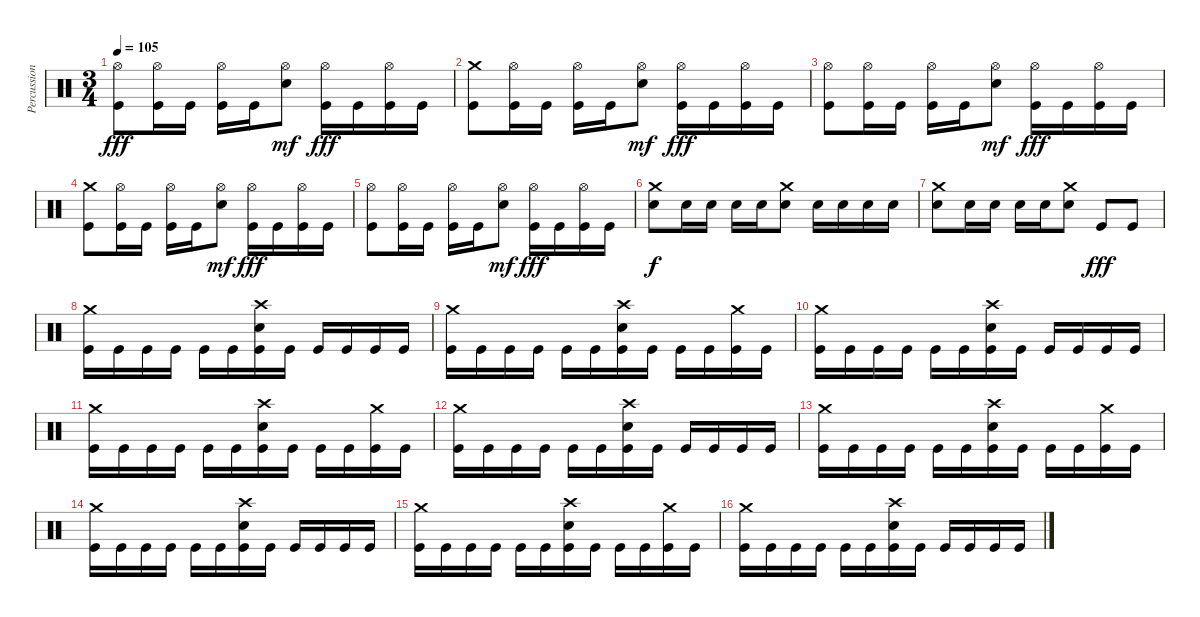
\track ("Percussions" "Percussion") {instrument percussion}
\staff {score}
\articulation defaults
\ts (3 4)
\tempo 105
\clef neutral
\ks c
("Hi-Hat (open)" "Kick (hit)").8{dy fff} ("Hi-Hat (open)" "Kick (hit)").16 "Kick (hit)".16 ("Hi-Hat (open)" "Kick (hit)").16 "Kick (hit)".16 ("Hi-Hat (open)" "Snare (hit) 2").8{dy mf} ("Hi-Hat (open)" "Kick (hit)").16{dy fff} "Kick (hit)".16 ("Hi-Hat (open)" "Kick (hit)").16 "Kick (hit)".16 |
("Crash medium (hit)" "Kick (hit)").8 ("Hi-Hat (open)" "Kick (hit)").16 "Kick (hit)".16 ("Hi-Hat (open)" "Kick (hit)").16 "Kick (hit)".16 ("Hi-Hat (open)" "Snare (hit) 2").8{dy mf} ("Hi-Hat (open)" "Kick (hit)").16{dy fff} "Kick (hit)".16 ("Hi-Hat (open)" "Kick (hit)").16 "Kick (hit)".16 |
("Hi-Hat (open)" "Kick (hit)").8 ("Hi-Hat (open)" "Kick (hit)").16 "Kick (hit)".16 ("Hi-Hat (open)" "Kick (hit)").16 "Kick (hit)".16 ("Hi-Hat (open)" "Snare (hit) 2").8{dy mf} ("Hi-Hat (open)" "Kick (hit)").16{dy fff} "Kick (hit)".16 ("Hi-Hat (open)" "Kick (hit)").16 "Kick (hit)".16 |
("Crash medium (hit)" "Kick (hit)").8 ("Hi-Hat (open)" "Kick (hit)").16 "Kick (hit)".16 ("Hi-Hat (open)" "Kick (hit)").16 "Kick (hit)".16 ("Hi-Hat (open)" "Snare (hit) 2").8{dy mf} ("Hi-Hat (open)" "Kick (hit)").16{dy fff} "Kick (hit)".16 ("Hi-Hat (open)" "Kick (hit)").16 "Kick (hit)".16 |
("Hi-Hat (open)" "Kick (hit)").8 ("Hi-Hat (open)" "Kick (hit)").16 "Kick (hit)".16 ("Hi-Hat (open)" "Kick (hit)").16 "Kick (hit)".16 ("Hi-Hat (open)" "Snare (hit) 2").8{dy mf} ("Hi-Hat (open)" "Kick (hit)").16{dy fff} "Kick (hit)".16 ("Hi-Hat (open)" "Kick (hit)").16 "Kick (hit)".16 |
("Crash medium (hit)" "Snare (hit) 2").8{dy f} "Snare (hit) 2".16 "Snare (hit) 2".16 "Snare (hit) 2".16 "Snare (hit) 2".16 ("Crash medium (hit)" "Snare (hit) 2").8 "Snare (hit) 2".16 "Snare (hit) 2".16 "Snare (hit) 2".16 "Snare (hit) 2".16 |
("Crash medium (hit)" "Snare (hit) 2").8 "Snare (hit) 2".16 "Snare (hit) 2".16 "Snare (hit) 2".16 "Snare (hit) 2".16 ("Crash medium (hit)" "Snare (hit) 2").8 "Kick (hit)".8{dy fff} "Kick (hit)".8 |
("Crash medium (hit)" "Kick (hit)").16 "Kick (hit)".16 "Kick (hit)".16 "Kick (hit)".16 "Kick (hit)".16 "Kick (hit)".16 ("Crash high (hit)" "Snare (hit) 2" "Kick (hit)").16 "Kick (hit)".16 "Kick (hit)".16 "Kick (hit)".16 "Kick (hit)".16 "Kick (hit)".16 |
("Crash medium (hit)" "Kick (hit)").16 "Kick (hit)".16 "Kick (hit)".16 "Kick (hit)".16 "Kick (hit)".16 "Kick (hit)".16 ("Crash high (hit)" "Snare (hit) 2" "Kick (hit)").16 "Kick (hit)".16 "Kick (hit)".16 "Kick (hit)".16 ("Crash medium (hit)" "Kick (hit)").16 "Kick (hit)".16 |
("Crash medium (hit)" "Kick (hit)").16 "Kick (hit)".16 "Kick (hit)".16 "Kick (hit)".16 "Kick (hit)".16 "Kick (hit)".16 ("Crash high (hit)" "Snare (hit) 2" "Kick (hit)").16 "Kick (hit)".16 "Kick (hit)".16 "Kick (hit)".16 "Kick (hit)".16 "Kick (hit)".16 |
("Crash medium (hit)" "Kick (hit)").16 "Kick (hit)".16 "Kick (hit)".16 "Kick (hit)".16 "Kick (hit)".16 "Kick (hit)".16 ("Crash high (hit)" "Snare (hit) 2" "Kick (hit)").16 "Kick (hit)".16 "Kick (hit)".16 "Kick (hit)".16 ("Crash medium (hit)" "Kick (hit)").16 "Kick (hit)".16 |
("Crash medium (hit)" "Kick (hit)").16 "Kick (hit)".16 "Kick (hit)".16 "Kick (hit)".16 "Kick (hit)".16 "Kick (hit)".16 ("Crash high (hit)" "Snare (hit) 2" "Kick (hit)").16 "Kick (hit)".16 "Kick (hit)".16 "Kick (hit)".16 "Kick (hit)".16 "Kick (hit)".16 |
("Crash medium (hit)" "Kick (hit)").16 "Kick (hit)".16 "Kick (hit)".16 "Kick (hit)".16 "Kick (hit)".16 "Kick (hit)".16 ("Crash high (hit)" "Snare (hit) 2" "Kick (hit)").16 "Kick (hit)".16 "Kick (hit)".16 "Kick (hit)".16 ("Crash medium (hit)" "Kick (hit)").16 "Kick (hit)".16 |
("Crash medium (hit)" "Kick (hit)").16 "Kick (hit)".16 "Kick (hit)".16 "Kick (hit)".16 "Kick (hit)".16 "Kick (hit)".16 ("Crash high (hit)" "Snare (hit) 2" "Kick (hit)").16 "Kick (hit)".16 "Kick (hit)".16 "Kick (hit)".16 "Kick (hit)".16 "Kick (hit)".16 |
("Crash medium (hit)" "Kick (hit)").16 "Kick (hit)".16 "Kick (hit)".16 "Kick (hit)".16 "Kick (hit)".16 "Kick (hit)".16 ("Crash high (hit)" "Snare (hit) 2" "Kick (hit)").16 "Kick (hit)".16 "Kick (hit)".16 "Kick (hit)".16 ("Crash medium (hit)" "Kick (hit)").16 "Kick (hit)".16 |
("Crash medium (hit)" "Kick (hit)").16 "Kick (hit)".16 "Kick (hit)".16 "Kick (hit)".16 "Kick (hit)".16 "Kick (hit)".16 ("Crash high (hit)" "Snare (hit) 2" "Kick (hit)").16 "Kick (hit)".16 "Kick (hit)".16 "Kick (hit)".16 "Kick (hit)".16 "Kick (hit)".16
